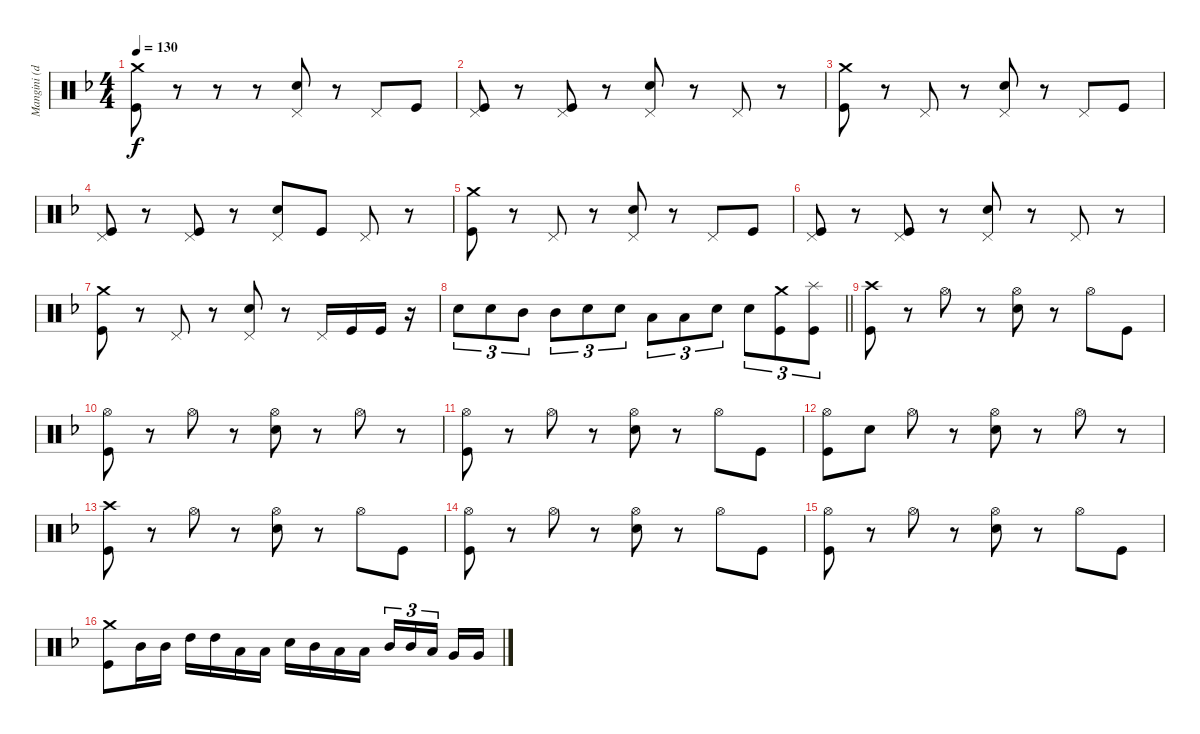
\track ("Mangini (drums)" "Mangini (d") {instrument percussion}
\staff {score}
\articulation defaults
\ts (4 4)
\tempo 130
\clef neutral
\ks dminor
("Crash medium (hit)" "Kick (hit)").8{dy f} r.8 r.8 r.8 ("Pedal Hi-Hat (hit)" "Snare (hit) 2").8 r.8 "Pedal Hi-Hat (hit)".8 "Kick (hit)".8 |
("Pedal Hi-Hat (hit)" "Kick (hit)").8 r.8 ("Pedal Hi-Hat (hit)" "Kick (hit)").8 r.8 ("Pedal Hi-Hat (hit)" "Snare (hit) 2").8 r.8 "Pedal Hi-Hat (hit)".8 r.8 |
("Crash medium (hit)" "Kick (hit)").8 r.8 "Pedal Hi-Hat (hit)".8 r.8 ("Pedal Hi-Hat (hit)" "Snare (hit) 2").8 r.8 "Pedal Hi-Hat (hit)".8 "Kick (hit)".8 |
("Pedal Hi-Hat (hit)" "Kick (hit)").8 r.8 ("Pedal Hi-Hat (hit)" "Kick (hit)").8 r.8 ("Pedal Hi-Hat (hit)" "Snare (hit) 2").8 "Kick (hit)".8 "Pedal Hi-Hat (hit)".8 r.8 |
("Crash medium (hit)" "Kick (hit)").8 r.8 "Pedal Hi-Hat (hit)".8 r.8 ("Pedal Hi-Hat (hit)" "Snare (hit) 2").8 r.8 "Pedal Hi-Hat (hit)".8 "Kick (hit)".8 |
("Pedal Hi-Hat (hit)" "Kick (hit)").8 r.8 ("Pedal Hi-Hat (hit)" "Kick (hit)").8 r.8 ("Pedal Hi-Hat (hit)" "Snare (hit) 2").8 r.8 "Pedal Hi-Hat (hit)".8 r.8 |
("Crash medium (hit)" "Kick (hit)").8 r.8 "Pedal Hi-Hat (hit)".8 r.8 ("Pedal Hi-Hat (hit)" "Snare (hit) 2").8 r.8 "Pedal Hi-Hat (hit)".16 "Kick (hit)".16 "Kick (hit)".16 r.16 |
\barLineRight lightlight "Snare (hit) 2".8{tu (3 2)} "Snare (hit) 2".8{tu (3 2)} "Mid Tom (hit)".8{tu (3 2)} "Mid Tom (hit)".8{tu (3 2)} "Snare (hit) 2".8{tu (3 2)} "Snare (hit) 2".8{tu (3 2)} "Low Tom (hit)".8{tu (3 2)} "Low Tom (hit)".8{tu (3 2)} "Snare (hit) 2".8{tu (3 2)} "Snare (hit) 2".8{tu (3 2)}
("Crash medium (hit)" "Kick (hit)").8{tu (3 2)} ("Splash (hit)" "Kick (hit)").8{tu (3 2)} |
("Crash high (hit)" "Kick (hit)").8 r.8 "Hi-Hat (open)".8 r.8 ("Hi-Hat (open)" "Snare (hit) 2").8 r.8 "Hi-Hat (open)".8 "Kick (hit)".8 |
("Hi-Hat (open)" "Kick (hit)").8 r.8 "Hi-Hat (open)".8 r.8 ("Hi-Hat (open)" "Snare (hit) 2").8 r.8 "Hi-Hat (open)".8 r.8 |
("Hi-Hat (open)" "Kick (hit)").8 r.8 "Hi-Hat (open)".8 r.8 ("Hi-Hat (open)" "Snare (hit) 2").8 r.8 "Hi-Hat (open)".8 "Kick (hit)".8 |
("Hi-Hat (open)" "Kick (hit)").8 "Snare (hit) 2".8 "Hi-Hat (open)".8 r.8 ("Hi-Hat (open)" "Snare (hit) 2").8 r.8 "Hi-Hat (open)".8 r.8 |
("Crash high (hit)" "Kick (hit)").8 r.8 "Hi-Hat (open)".8 r.8 ("Hi-Hat (open)" "Snare (hit) 2").8 r.8 "Hi-Hat (open)".8 "Kick (hit)".8 |
("Hi-Hat (open)" "Kick (hit)").8 r.8 "Hi-Hat (open)".8 r.8 ("Hi-Hat (open)" "Snare (hit) 2").8 r.8 "Hi-Hat (open)".8 "Kick (hit)".8 |
("Hi-Hat (open)" "Kick (hit)").8 r.8 "Hi-Hat (open)".8 r.8 ("Hi-Hat (open)" "Snare (hit) 2").8 r.8 "Hi-Hat (open)".8 "Kick (hit)".8 |
("Crash medium (hit)" "Kick (hit)").8 "Mid Tom (hit)".16 "Mid Tom (hit)".16 "High Tom (hit)".16 "High Tom (hit)".16 "Low Tom (hit)".16 "Low Tom (hit)".16 "Snare (hit) 2".16 "Mid Tom (hit)".16 "Low Tom (hit)".16 "Low Tom (hit)".16 "Mid Tom (hit)".16{tu (3 2)} "Mid Tom (hit)".16{tu (3 2)} "Low Tom (hit)".16{tu (3 2) beam splitsecondary} "Very Low Tom (hit)".16 "Very Low Tom (hit)".16
